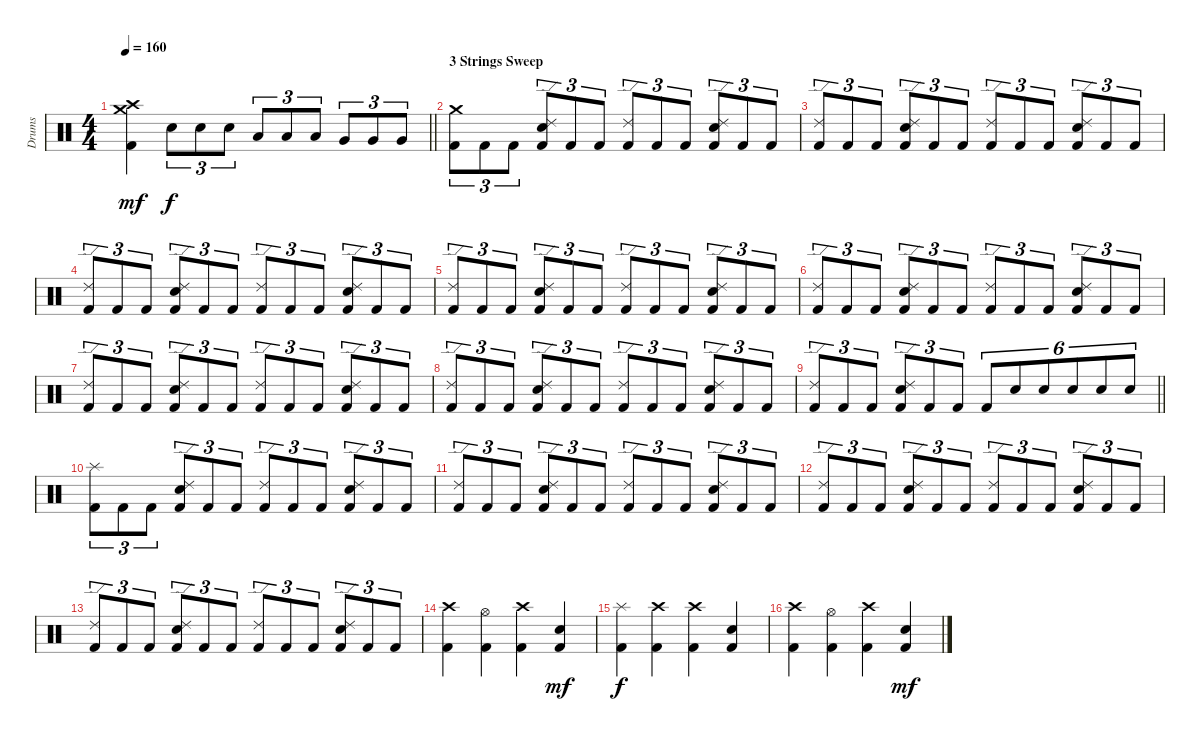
\track ("Drums" "Drums") {instrument percussion}
\staff {score}
\articulation defaults
\ts (4 4)
\tempo 160
\clef neutral
\barLineRight lightlight
\ks c
("Crash high (hit)" "Crash medium (hit)" "Kick (hit) 2").4{dy mf} "Snare (hit) 2".8{tu (3 2) dy f} "Snare (hit) 2".8{tu (3 2)} "Snare (hit) 2".8{tu (3 2)} "Low Tom (hit)".8{tu (3 2)} "Low Tom (hit)".8{tu (3 2)} "Low Tom (hit)".8{tu (3 2)} "Very Low Tom (hit)".8{tu (3 2)} "Very Low Tom (hit)".8{tu (3 2)} "Very Low Tom (hit)".8{tu (3 2)} |
\section ("" "3 Strings Sweep ")
("Crash medium (hit)" "Kick (hit) 2").8{tu (3 2)} "Kick (hit) 2".8{tu (3 2)} "Kick (hit) 2".8{tu (3 2)} ("Ride (edge) 2" "Snare (hit) 2" "Kick (hit) 2").8{tu (3 2)} "Kick (hit) 2".8{tu (3 2)} "Kick (hit) 2".8{tu (3 2)} ("Ride (edge) 2" "Kick (hit) 2").8{tu (3 2)} "Kick (hit) 2".8{tu (3 2)} "Kick (hit) 2".8{tu (3 2)} ("Ride (edge) 2" "Snare (hit) 2" "Kick (hit) 2").8{tu (3 2)} "Kick (hit) 2".8{tu (3 2)} "Kick (hit) 2".8{tu (3 2)} |
("Ride (edge) 2" "Kick (hit) 2").8{tu (3 2)} "Kick (hit) 2".8{tu (3 2)} "Kick (hit) 2".8{tu (3 2)} ("Ride (edge) 2" "Snare (hit) 2" "Kick (hit) 2").8{tu (3 2)} "Kick (hit) 2".8{tu (3 2)} "Kick (hit) 2".8{tu (3 2)} ("Ride (edge) 2" "Kick (hit) 2").8{tu (3 2)} "Kick (hit) 2".8{tu (3 2)} "Kick (hit) 2".8{tu (3 2)} ("Ride (edge) 2" "Snare (hit) 2" "Kick (hit) 2").8{tu (3 2)} "Kick (hit) 2".8{tu (3 2)} "Kick (hit) 2".8{tu (3 2)} |
("Ride (edge) 2" "Kick (hit) 2").8{tu (3 2)} "Kick (hit) 2".8{tu (3 2)} "Kick (hit) 2".8{tu (3 2)} ("Ride (edge) 2" "Snare (hit) 2" "Kick (hit) 2").8{tu (3 2)} "Kick (hit) 2".8{tu (3 2)} "Kick (hit) 2".8{tu (3 2)} ("Ride (edge) 2" "Kick (hit) 2").8{tu (3 2)} "Kick (hit) 2".8{tu (3 2)} "Kick (hit) 2".8{tu (3 2)} ("Ride (edge) 2" "Snare (hit) 2" "Kick (hit) 2").8{tu (3 2)} "Kick (hit) 2".8{tu (3 2)} "Kick (hit) 2".8{tu (3 2)} |
("Ride (edge) 2" "Kick (hit) 2").8{tu (3 2)} "Kick (hit) 2".8{tu (3 2)} "Kick (hit) 2".8{tu (3 2)} ("Ride (edge) 2" "Snare (hit) 2" "Kick (hit) 2").8{tu (3 2)} "Kick (hit) 2".8{tu (3 2)} "Kick (hit) 2".8{tu (3 2)} ("Ride (edge) 2" "Kick (hit) 2").8{tu (3 2)} "Kick (hit) 2".8{tu (3 2)} "Kick (hit) 2".8{tu (3 2)} ("Ride (edge) 2" "Snare (hit) 2" "Kick (hit) 2").8{tu (3 2)} "Kick (hit) 2".8{tu (3 2)} "Kick (hit) 2".8{tu (3 2)} |
("Ride (edge) 2" "Kick (hit) 2").8{tu (3 2)} "Kick (hit) 2".8{tu (3 2)} "Kick (hit) 2".8{tu (3 2)} ("Ride (edge) 2" "Snare (hit) 2" "Kick (hit) 2").8{tu (3 2)} "Kick (hit) 2".8{tu (3 2)} "Kick (hit) 2".8{tu (3 2)} ("Ride (edge) 2" "Kick (hit) 2").8{tu (3 2)} "Kick (hit) 2".8{tu (3 2)} "Kick (hit) 2".8{tu (3 2)} ("Ride (edge) 2" "Snare (hit) 2" "Kick (hit) 2").8{tu (3 2)} "Kick (hit) 2".8{tu (3 2)} "Kick (hit) 2".8{tu (3 2)} |
("Ride (edge) 2" "Kick (hit) 2").8{tu (3 2)} "Kick (hit) 2".8{tu (3 2)} "Kick (hit) 2".8{tu (3 2)} ("Ride (edge) 2" "Snare (hit) 2" "Kick (hit) 2").8{tu (3 2)} "Kick (hit) 2".8{tu (3 2)} "Kick (hit) 2".8{tu (3 2)} ("Ride (edge) 2" "Kick (hit) 2").8{tu (3 2)} "Kick (hit) 2".8{tu (3 2)} "Kick (hit) 2".8{tu (3 2)} ("Ride (edge) 2" "Snare (hit) 2" "Kick (hit) 2").8{tu (3 2)} "Kick (hit) 2".8{tu (3 2)} "Kick (hit) 2".8{tu (3 2)} |
("Ride (edge) 2" "Kick (hit) 2").8{tu (3 2)} "Kick (hit) 2".8{tu (3 2)} "Kick (hit) 2".8{tu (3 2)} ("Ride (edge) 2" "Snare (hit) 2" "Kick (hit) 2").8{tu (3 2)} "Kick (hit) 2".8{tu (3 2)} "Kick (hit) 2".8{tu (3 2)} ("Ride (edge) 2" "Kick (hit) 2").8{tu (3 2)} "Kick (hit) 2".8{tu (3 2)} "Kick (hit) 2".8{tu (3 2)} ("Ride (edge) 2" "Snare (hit) 2" "Kick (hit) 2").8{tu (3 2)} "Kick (hit) 2".8{tu (3 2)} "Kick (hit) 2".8{tu (3 2)} |
\barLineRight lightlight
("Ride (edge) 2" "Kick (hit) 2").8{tu (3 2)} "Kick (hit) 2".8{tu (3 2)} "Kick (hit) 2".8{tu (3 2)} ("Ride (edge) 2" "Snare (hit) 2" "Kick (hit) 2").8{tu (3 2)} "Kick (hit) 2".8{tu (3 2)} "Kick (hit) 2".8{tu (3 2)} "Kick (hit) 2".8{tu (6 4)} "Snare (hit) 2".8{tu (6 4)} "Snare (hit) 2".8{tu (6 4)} "Snare (hit) 2".8{tu (6 4)} "Snare (hit) 2".8{tu (6 4)} "Snare (hit) 2".8{tu (6 4)} |
\section ("" "")
("Splash (hit)" "Kick (hit) 2").8{tu (3 2)} "Kick (hit) 2".8{tu (3 2)} "Kick (hit) 2".8{tu (3 2)} ("Ride (edge) 2" "Snare (hit) 2" "Kick (hit) 2").8{tu (3 2)} "Kick (hit) 2".8{tu (3 2)} "Kick (hit) 2".8{tu (3 2)} ("Ride (edge) 2" "Kick (hit) 2").8{tu (3 2)} "Kick (hit) 2".8{tu (3 2)} "Kick (hit) 2".8{tu (3 2)} ("Ride (edge) 2" "Snare (hit) 2" "Kick (hit) 2").8{tu (3 2)} "Kick (hit) 2".8{tu (3 2)} "Kick (hit) 2".8{tu (3 2)} |
("Ride (edge) 2" "Kick (hit) 2").8{tu (3 2)} "Kick (hit) 2".8{tu (3 2)} "Kick (hit) 2".8{tu (3 2)} ("Ride (edge) 2" "Snare (hit) 2" "Kick (hit) 2").8{tu (3 2)} "Kick (hit) 2".8{tu (3 2)} "Kick (hit) 2".8{tu (3 2)} ("Ride (edge) 2" "Kick (hit) 2").8{tu (3 2)} "Kick (hit) 2".8{tu (3 2)} "Kick (hit) 2".8{tu (3 2)} ("Ride (edge) 2" "Snare (hit) 2" "Kick (hit) 2").8{tu (3 2)} "Kick (hit) 2".8{tu (3 2)} "Kick (hit) 2".8{tu (3 2)} |
("Ride (edge) 2" "Kick (hit) 2").8{tu (3 2)} "Kick (hit) 2".8{tu (3 2)} "Kick (hit) 2".8{tu (3 2)} ("Ride (edge) 2" "Snare (hit) 2" "Kick (hit) 2").8{tu (3 2)} "Kick (hit) 2".8{tu (3 2)} "Kick (hit) 2".8{tu (3 2)} ("Ride (edge) 2" "Kick (hit) 2").8{tu (3 2)} "Kick (hit) 2".8{tu (3 2)} "Kick (hit) 2".8{tu (3 2)} ("Ride (edge) 2" "Snare (hit) 2" "Kick (hit) 2").8{tu (3 2)} "Kick (hit) 2".8{tu (3 2)} "Kick (hit) 2".8{tu (3 2)} |
("Ride (edge) 2" "Kick (hit) 2").8{tu (3 2)} "Kick (hit) 2".8{tu (3 2)} "Kick (hit) 2".8{tu (3 2)} ("Ride (edge) 2" "Snare (hit) 2" "Kick (hit) 2").8{tu (3 2)} "Kick (hit) 2".8{tu (3 2)} "Kick (hit) 2".8{tu (3 2)} ("Ride (edge) 2" "Kick (hit) 2").8{tu (3 2)} "Kick (hit) 2".8{tu (3 2)} "Kick (hit) 2".8{tu (3 2)} ("Ride (edge) 2" "Snare (hit) 2" "Kick (hit) 2").8{tu (3 2)} "Kick (hit) 2".8{tu (3 2)} "Kick (hit) 2".8{tu (3 2)} |
("Crash high (hit)" "Kick (hit) 2").4 ("Hi-Hat (open)" "Kick (hit) 2").4 ("Crash high (hit)" "Kick (hit) 2").4 ("Electric Snare (hit)" "Kick (hit) 2").4{dy mf} |
("Splash (hit)" "Kick (hit) 2").4{dy f} ("Crash high (hit)" "Kick (hit) 2").4 ("Crash high (hit)" "Kick (hit) 2").4 ("Electric Snare (hit)" "Kick (hit) 2").4 |
("Crash high (hit)" "Kick (hit) 2").4 ("Hi-Hat (open)" "Kick (hit) 2").4 ("Crash high (hit)" "Kick (hit) 2").4 ("Electric Snare (hit)" "Kick (hit) 2").4{dy mf}
